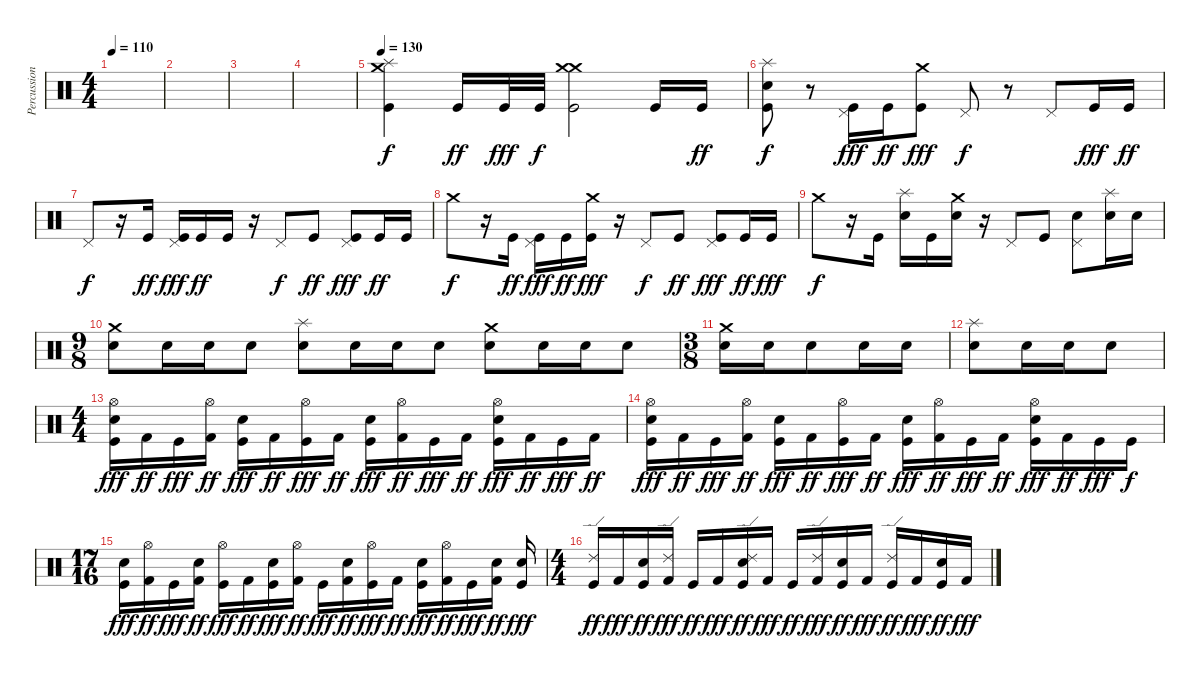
\track ("Percussioni" "Percussion") {instrument percussion}
\staff {score}
\articulation defaults
\ts (4 4)
\tempo 110
\clef neutral
\ks c
|
|
|
|
\tempo 130
("Crash medium (hit)" "Splash (hit)" "Kick (hit)").4 "Kick (hit)".16{dy ff} "Kick (hit)".32{dy fff} "Kick (hit)".32{dy f} ("Crash medium (hit)" "Crash medium (hit)" "Kick (hit)").2 "Kick (hit)".16 "Kick (hit)".16{dy ff} |
("Splash (hit)" "Snare (hit) 2" "Kick (hit)").8{dy f} r.8 ("Pedal Hi-Hat (hit)" "Kick (hit)").16{dy fff} "Kick (hit)".16{dy ff} ("Crash medium (hit)" "Kick (hit)").8{dy fff} "Pedal Hi-Hat (hit)".8{dy f} r.8 "Pedal Hi-Hat (hit)".8 "Kick (hit)".16{dy fff} "Kick (hit)".16{dy ff} |
"Pedal Hi-Hat (hit)".8{dy f} r.16 "Kick (hit)".16{dy ff} ("Pedal Hi-Hat (hit)" "Kick (hit)").16{dy fff} "Kick (hit)".16{dy ff} "Kick (hit)".16 r.16 "Pedal Hi-Hat (hit)".8{dy f} "Kick (hit)".8{dy ff} ("Pedal Hi-Hat (hit)" "Kick (hit)").8{dy fff} "Kick (hit)".16{dy ff} "Kick (hit)".16 |
"Crash medium (hit)".8{dy f} r.16 "Kick (hit)".16{dy ff} ("Pedal Hi-Hat (hit)" "Kick (hit)").16{dy fff} "Kick (hit)".16{dy ff} ("Crash medium (hit)" "Kick (hit)").16{dy fff} r.16 "Pedal Hi-Hat (hit)".8{dy f} "Kick (hit)".8{dy ff} ("Pedal Hi-Hat (hit)" "Kick (hit)").8{dy fff} "Kick (hit)".16{dy ff} "Kick (hit)".16{dy fff} |
"Crash medium (hit)".8{dy f} r.16 "Kick (hit)".16 ("Splash (hit)" "Snare (hit) 2").16 "Kick (hit)".16 ("Crash medium (hit)" "Snare (hit) 2").16 r.16 "Pedal Hi-Hat (hit)".8 "Kick (hit)".8 ("Pedal Hi-Hat (hit)" "Snare (hit) 2").8 ("Splash (hit)" "Snare (hit) 2").16 "Snare (hit) 2".16 |
\ts (9 8)
("Crash medium (hit)" "Snare (hit) 2").8 "Snare (hit) 2".16 "Snare (hit) 2".16 "Snare (hit) 2".8 ("Splash (hit)" "Snare (hit) 2").8 "Snare (hit) 2".16 "Snare (hit) 2".16 "Snare (hit) 2".8 ("Crash medium (hit)" "Snare (hit) 2").8 "Snare (hit) 2".16 "Snare (hit) 2".16 "Snare (hit) 2".8 |
\ts (3 8)
("Crash medium (hit)" "Snare (hit) 2").16 "Snare (hit) 2".16 "Snare (hit) 2".8 "Snare (hit) 2".16 "Snare (hit) 2".16 |
("Splash (hit)" "Snare (hit) 2").8 "Snare (hit) 2".16 "Snare (hit) 2".16 "Snare (hit) 2".8 |
\ts (4 4)
("Hi-Hat (open)" "Snare (hit) 2" "Kick (hit)").16{dy fff} "Kick (hit) 2".16{dy ff} "Kick (hit)".16{dy fff} ("Hi-Hat (open)" "Kick (hit) 2").16{dy ff} ("Snare (hit) 2" "Kick (hit)").16{dy fff} "Kick (hit) 2".16{dy ff} ("Hi-Hat (open)" "Kick (hit)").16{dy fff} "Kick (hit) 2".16{dy ff} ("Snare (hit) 2" "Kick (hit)").16{dy fff} ("Hi-Hat (open)" "Kick (hit) 2").16{dy ff} "Kick (hit)".16{dy fff} "Kick (hit) 2".16{dy ff} ("Hi-Hat (open)" "Snare (hit) 2" "Kick (hit)").16{dy fff} "Kick (hit) 2".16{dy ff} "Kick (hit)".16{dy fff} "Kick (hit) 2".16{dy ff} |
("Hi-Hat (open)" "Snare (hit) 2" "Kick (hit)").16{dy fff} "Kick (hit) 2".16{dy ff} "Kick (hit)".16{dy fff} ("Hi-Hat (open)" "Kick (hit) 2").16{dy ff} ("Snare (hit) 2" "Kick (hit)").16{dy fff} "Kick (hit) 2".16{dy ff} ("Hi-Hat (open)" "Kick (hit)").16{dy fff} "Kick (hit) 2".16{dy ff} ("Snare (hit) 2" "Kick (hit)").16{dy fff} ("Hi-Hat (open)" "Kick (hit) 2").16{dy ff} "Kick (hit)".16{dy fff} "Kick (hit) 2".16{dy ff} ("Hi-Hat (open)" "Snare (hit) 2" "Kick (hit)").16{dy fff} "Kick (hit) 2".16{dy ff} "Kick (hit)".16{dy fff} "Kick (hit)".16{dy f} |
\ts (17 16)
("Snare (hit) 2" "Kick (hit)").16{dy fff} ("Hi-Hat (open)" "Kick (hit) 2").16{dy ff} "Kick (hit)".16{dy fff} ("Snare (hit) 2" "Kick (hit) 2").16{dy ff} ("Hi-Hat (open)" "Kick (hit)").16{dy fff} "Kick (hit) 2".16{dy ff} ("Snare (hit) 2" "Kick (hit)").16{dy fff} ("Hi-Hat (open)" "Kick (hit) 2").16{dy ff} "Kick (hit)".16{dy fff} ("Snare (hit) 2" "Kick (hit) 2").16{dy ff} ("Hi-Hat (open)" "Kick (hit)").16{dy fff} "Kick (hit) 2".16{dy ff} ("Snare (hit) 2" "Kick (hit)").16{dy fff} ("Hi-Hat (open)" "Kick (hit) 2").16{dy ff} "Kick (hit)".16{dy fff} ("Snare (hit) 2" "Kick (hit) 2").16{dy ff} ("Snare (hit) 2" "Kick (hit)").16{dy fff} |
\ts (4 4)
("Ride (edge) 2" "Kick (hit)").16{dy ff} "Kick (hit) 2".16{dy fff} ("Snare (hit) 2" "Kick (hit)").16{dy ff} ("Ride (edge) 2" "Kick (hit) 2").16{dy fff} "Kick (hit)".16{dy ff} "Kick (hit) 2".16{dy fff} ("Ride (edge) 2" "Snare (hit) 2" "Kick (hit)").16{dy ff} "Kick (hit) 2".16{dy fff} "Kick (hit)".16{dy ff} ("Ride (edge) 2" "Kick (hit) 2").16{dy fff} ("Snare (hit) 2" "Kick (hit)").16{dy ff} "Kick (hit) 2".16{dy fff} ("Ride (edge) 2" "Kick (hit)").16{dy ff} "Kick (hit) 2".16{dy fff} ("Snare (hit) 2" "Kick (hit)").16{dy ff} "Kick (hit) 2".16{dy fff}
